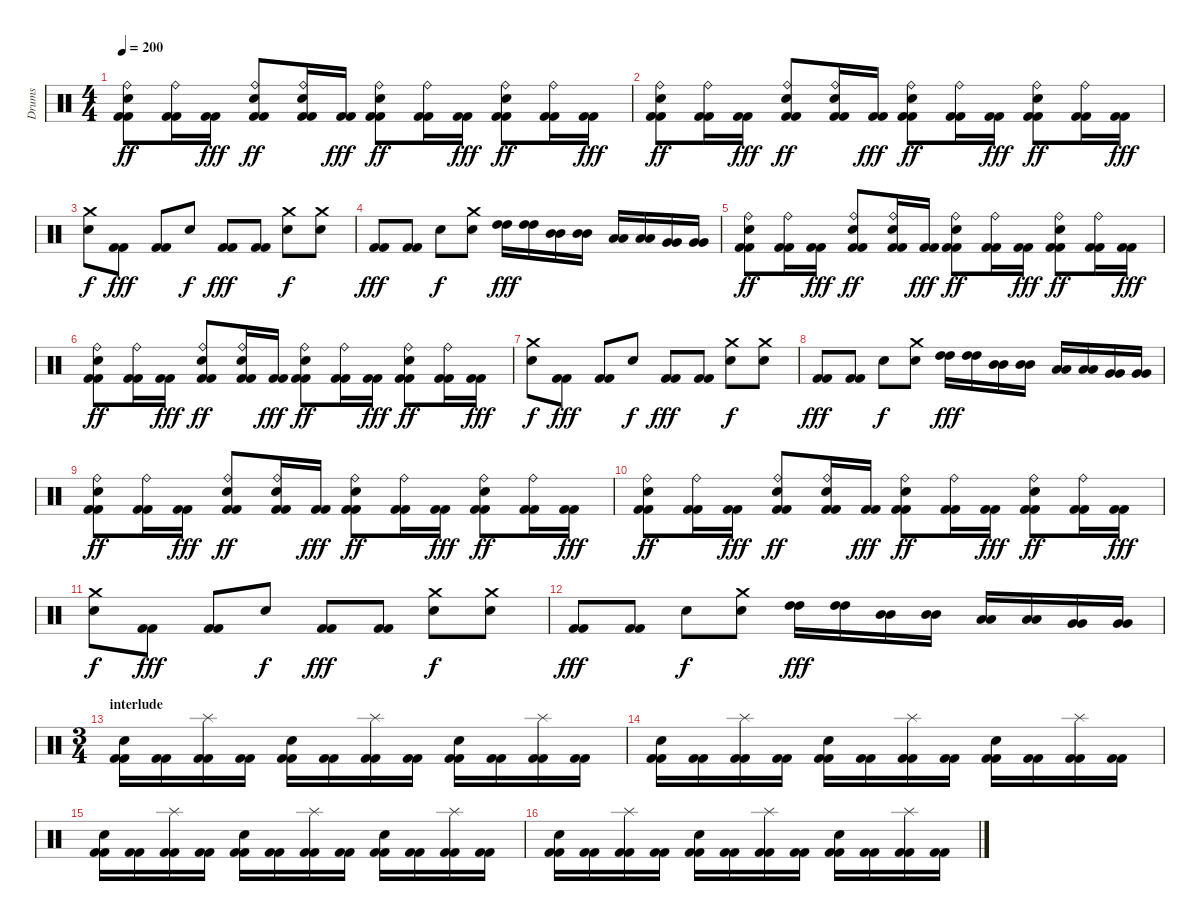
\track ("Drums" "Drums") {instrument percussion}
\staff {score}
\articulation defaults
\ts (4 4)
\tempo 200
\clef neutral
\ks c
("Kick (hit) 2" "Kick (hit) 2" "Ride (bell)" "Electric Snare (hit)").8{dy ff} ("Kick (hit) 2" "Kick (hit) 2" "Ride (bell)").16 ("Kick (hit) 2" "Kick (hit) 2").16{dy fff} ("Kick (hit) 2" "Kick (hit) 2" "Ride (bell)" "Electric Snare (hit)").8{dy ff} ("Kick (hit) 2" "Kick (hit) 2" "Ride (bell)" "Electric Snare (hit)").16 ("Kick (hit) 2" "Kick (hit) 2").16{dy fff} ("Kick (hit) 2" "Kick (hit) 2" "Ride (bell)" "Electric Snare (hit)").8{dy ff} ("Kick (hit) 2" "Kick (hit) 2" "Ride (bell)").16 ("Kick (hit) 2" "Kick (hit) 2").16{dy fff} ("Kick (hit) 2" "Kick (hit) 2" "Ride (bell)" "Electric Snare (hit)").8{dy ff} ("Kick (hit) 2" "Kick (hit) 2" "Ride (bell)").16 ("Kick (hit) 2" "Kick (hit) 2").16{dy fff} |
("Kick (hit) 2" "Kick (hit) 2" "Ride (bell)" "Electric Snare (hit)").8{dy ff} ("Kick (hit) 2" "Kick (hit) 2" "Ride (bell)").16 ("Kick (hit) 2" "Kick (hit) 2").16{dy fff} ("Kick (hit) 2" "Kick (hit) 2" "Ride (bell)" "Electric Snare (hit)").8{dy ff} ("Kick (hit) 2" "Kick (hit) 2" "Ride (bell)" "Electric Snare (hit)").16 ("Kick (hit) 2" "Kick (hit) 2").16{dy fff} ("Kick (hit) 2" "Kick (hit) 2" "Ride (bell)" "Electric Snare (hit)").8{dy ff} ("Kick (hit) 2" "Kick (hit) 2" "Ride (bell)").16 ("Kick (hit) 2" "Kick (hit) 2").16{dy fff} ("Kick (hit) 2" "Kick (hit) 2" "Ride (bell)" "Electric Snare (hit)").8{dy ff} ("Kick (hit) 2" "Kick (hit) 2" "Ride (bell)").16 ("Kick (hit) 2" "Kick (hit) 2").16{dy fff} |
("Crash medium (hit)" "Electric Snare (hit)").8{dy f} ("Kick (hit) 2" "Kick (hit) 2").8{dy fff} ("Kick (hit) 2" "Kick (hit) 2").8 "Electric Snare (hit)".8{dy f} ("Kick (hit) 2" "Kick (hit) 2").8{dy fff} ("Kick (hit) 2" "Kick (hit) 2").8 ("Crash medium (hit)" "Electric Snare (hit)").8{dy f} ("Crash medium (hit)" "Electric Snare (hit)").8 |
("Kick (hit) 2" "Kick (hit) 2").8{dy fff} ("Kick (hit) 2" "Kick (hit) 2").8 "Electric Snare (hit)".8{dy f} ("Crash medium (hit)" "Electric Snare (hit)").8 ("High Tom (hit)" "High Tom (hit)").16{dy fff} ("High Tom (hit)" "High Tom (hit)").16 ("Mid Tom (hit)" "Mid Tom (hit)").16 ("Mid Tom (hit)" "Mid Tom (hit)").16 ("Low Tom (hit)" "Low Tom (hit)").16 ("Low Tom (hit)" "Low Tom (hit)").16 ("Very Low Tom (hit)" "Very Low Tom (hit)").16 ("Very Low Tom (hit)" "Very Low Tom (hit)").16 |
("Kick (hit) 2" "Kick (hit) 2" "Ride (bell)" "Electric Snare (hit)").8{dy ff} ("Kick (hit) 2" "Kick (hit) 2" "Ride (bell)").16 ("Kick (hit) 2" "Kick (hit) 2").16{dy fff} ("Kick (hit) 2" "Kick (hit) 2" "Ride (bell)" "Electric Snare (hit)").8{dy ff} ("Kick (hit) 2" "Kick (hit) 2" "Ride (bell)" "Electric Snare (hit)").16 ("Kick (hit) 2" "Kick (hit) 2").16{dy fff} ("Kick (hit) 2" "Kick (hit) 2" "Ride (bell)" "Electric Snare (hit)").8{dy ff} ("Kick (hit) 2" "Kick (hit) 2" "Ride (bell)").16 ("Kick (hit) 2" "Kick (hit) 2").16{dy fff} ("Kick (hit) 2" "Kick (hit) 2" "Ride (bell)" "Electric Snare (hit)").8{dy ff} ("Kick (hit) 2" "Kick (hit) 2" "Ride (bell)").16 ("Kick (hit) 2" "Kick (hit) 2").16{dy fff} |
("Kick (hit) 2" "Kick (hit) 2" "Ride (bell)" "Electric Snare (hit)").8{dy ff} ("Kick (hit) 2" "Kick (hit) 2" "Ride (bell)").16 ("Kick (hit) 2" "Kick (hit) 2").16{dy fff} ("Kick (hit) 2" "Kick (hit) 2" "Ride (bell)" "Electric Snare (hit)").8{dy ff} ("Kick (hit) 2" "Kick (hit) 2" "Ride (bell)" "Electric Snare (hit)").16 ("Kick (hit) 2" "Kick (hit) 2").16{dy fff} ("Kick (hit) 2" "Kick (hit) 2" "Ride (bell)" "Electric Snare (hit)").8{dy ff} ("Kick (hit) 2" "Kick (hit) 2" "Ride (bell)").16 ("Kick (hit) 2" "Kick (hit) 2").16{dy fff} ("Kick (hit) 2" "Kick (hit) 2" "Ride (bell)" "Electric Snare (hit)").8{dy ff} ("Kick (hit) 2" "Kick (hit) 2" "Ride (bell)").16 ("Kick (hit) 2" "Kick (hit) 2").16{dy fff} |
("Crash medium (hit)" "Electric Snare (hit)").8{dy f} ("Kick (hit) 2" "Kick (hit) 2").8{dy fff} ("Kick (hit) 2" "Kick (hit) 2").8 "Electric Snare (hit)".8{dy f} ("Kick (hit) 2" "Kick (hit) 2").8{dy fff} ("Kick (hit) 2" "Kick (hit) 2").8 ("Crash medium (hit)" "Electric Snare (hit)").8{dy f} ("Crash medium (hit)" "Electric Snare (hit)").8 |
("Kick (hit) 2" "Kick (hit) 2").8{dy fff} ("Kick (hit) 2" "Kick (hit) 2").8 "Electric Snare (hit)".8{dy f} ("Crash medium (hit)" "Electric Snare (hit)").8 ("High Tom (hit)" "High Tom (hit)").16{dy fff} ("High Tom (hit)" "High Tom (hit)").16 ("Mid Tom (hit)" "Mid Tom (hit)").16 ("Mid Tom (hit)" "Mid Tom (hit)").16 ("Low Tom (hit)" "Low Tom (hit)").16 ("Low Tom (hit)" "Low Tom (hit)").16 ("Very Low Tom (hit)" "Very Low Tom (hit)").16 ("Very Low Tom (hit)" "Very Low Tom (hit)").16 |
("Kick (hit) 2" "Kick (hit) 2" "Ride (bell)" "Electric Snare (hit)").8{dy ff} ("Kick (hit) 2" "Kick (hit) 2" "Ride (bell)").16 ("Kick (hit) 2" "Kick (hit) 2").16{dy fff} ("Kick (hit) 2" "Kick (hit) 2" "Ride (bell)" "Electric Snare (hit)").8{dy ff} ("Kick (hit) 2" "Kick (hit) 2" "Ride (bell)" "Electric Snare (hit)").16 ("Kick (hit) 2" "Kick (hit) 2").16{dy fff} ("Kick (hit) 2" "Kick (hit) 2" "Ride (bell)" "Electric Snare (hit)").8{dy ff} ("Kick (hit) 2" "Kick (hit) 2" "Ride (bell)").16 ("Kick (hit) 2" "Kick (hit) 2").16{dy fff} ("Kick (hit) 2" "Kick (hit) 2" "Ride (bell)" "Electric Snare (hit)").8{dy ff} ("Kick (hit) 2" "Kick (hit) 2" "Ride (bell)").16 ("Kick (hit) 2" "Kick (hit) 2").16{dy fff} |
("Kick (hit) 2" "Kick (hit) 2" "Ride (bell)" "Electric Snare (hit)").8{dy ff} ("Kick (hit) 2" "Kick (hit) 2" "Ride (bell)").16 ("Kick (hit) 2" "Kick (hit) 2").16{dy fff} ("Kick (hit) 2" "Kick (hit) 2" "Ride (bell)" "Electric Snare (hit)").8{dy ff} ("Kick (hit) 2" "Kick (hit) 2" "Ride (bell)" "Electric Snare (hit)").16 ("Kick (hit) 2" "Kick (hit) 2").16{dy fff} ("Kick (hit) 2" "Kick (hit) 2" "Ride (bell)" "Electric Snare (hit)").8{dy ff} ("Kick (hit) 2" "Kick (hit) 2" "Ride (bell)").16 ("Kick (hit) 2" "Kick (hit) 2").16{dy fff} ("Kick (hit) 2" "Kick (hit) 2" "Ride (bell)" "Electric Snare (hit)").8{dy ff} ("Kick (hit) 2" "Kick (hit) 2" "Ride (bell)").16 ("Kick (hit) 2" "Kick (hit) 2").16{dy fff} |
("Crash medium (hit)" "Electric Snare (hit)").8{dy f} ("Kick (hit) 2" "Kick (hit) 2").8{dy fff} ("Kick (hit) 2" "Kick (hit) 2").8 "Electric Snare (hit)".8{dy f} ("Kick (hit) 2" "Kick (hit) 2").8{dy fff} ("Kick (hit) 2" "Kick (hit) 2").8 ("Crash medium (hit)" "Electric Snare (hit)").8{dy f} ("Crash medium (hit)" "Electric Snare (hit)").8 |
("Kick (hit) 2" "Kick (hit) 2").8{dy fff} ("Kick (hit) 2" "Kick (hit) 2").8 "Electric Snare (hit)".8{dy f} ("Crash medium (hit)" "Electric Snare (hit)").8 ("High Tom (hit)" "High Tom (hit)").16{dy fff} ("High Tom (hit)" "High Tom (hit)").16 ("Mid Tom (hit)" "Mid Tom (hit)").16 ("Mid Tom (hit)" "Mid Tom (hit)").16 ("Low Tom (hit)" "Low Tom (hit)").16 ("Low Tom (hit)" "Low Tom (hit)").16 ("Very Low Tom (hit)" "Very Low Tom (hit)").16 ("Very Low Tom (hit)" "Very Low Tom (hit)").16 |
\ts (3 4)
\section ("" "interlude")
("Electric Snare (hit)" "Kick (hit) 2" "Kick (hit) 2").16 ("Kick (hit) 2" "Kick (hit) 2").16 ("Splash (hit)" "Kick (hit) 2" "Kick (hit) 2").16 ("Kick (hit) 2" "Kick (hit) 2").16 ("Electric Snare (hit)" "Kick (hit) 2" "Kick (hit) 2").16 ("Kick (hit) 2" "Kick (hit) 2").16 ("Splash (hit)" "Kick (hit) 2" "Kick (hit) 2").16 ("Kick (hit) 2" "Kick (hit) 2").16 ("Electric Snare (hit)" "Kick (hit) 2" "Kick (hit) 2").16 ("Kick (hit) 2" "Kick (hit) 2").16 ("Splash (hit)" "Kick (hit) 2" "Kick (hit) 2").16 ("Kick (hit) 2" "Kick (hit) 2").16 |
("Electric Snare (hit)" "Kick (hit) 2" "Kick (hit) 2").16 ("Kick (hit) 2" "Kick (hit) 2").16 ("Splash (hit)" "Kick (hit) 2" "Kick (hit) 2").16 ("Kick (hit) 2" "Kick (hit) 2").16 ("Electric Snare (hit)" "Kick (hit) 2" "Kick (hit) 2").16 ("Kick (hit) 2" "Kick (hit) 2").16 ("Splash (hit)" "Kick (hit) 2" "Kick (hit) 2").16 ("Kick (hit) 2" "Kick (hit) 2").16 ("Electric Snare (hit)" "Kick (hit) 2" "Kick (hit) 2").16 ("Kick (hit) 2" "Kick (hit) 2").16 ("Splash (hit)" "Kick (hit) 2" "Kick (hit) 2").16 ("Kick (hit) 2" "Kick (hit) 2").16 |
("Electric Snare (hit)" "Kick (hit) 2" "Kick (hit) 2").16 ("Kick (hit) 2" "Kick (hit) 2").16 ("Splash (hit)" "Kick (hit) 2" "Kick (hit) 2").16 ("Kick (hit) 2" "Kick (hit) 2").16 ("Electric Snare (hit)" "Kick (hit) 2" "Kick (hit) 2").16 ("Kick (hit) 2" "Kick (hit) 2").16 ("Splash (hit)" "Kick (hit) 2" "Kick (hit) 2").16 ("Kick (hit) 2" "Kick (hit) 2").16 ("Electric Snare (hit)" "Kick (hit) 2" "Kick (hit) 2").16 ("Kick (hit) 2" "Kick (hit) 2").16 ("Splash (hit)" "Kick (hit) 2" "Kick (hit) 2").16 ("Kick (hit) 2" "Kick (hit) 2").16 |
("Electric Snare (hit)" "Kick (hit) 2" "Kick (hit) 2").16 ("Kick (hit) 2" "Kick (hit) 2").16 ("Splash (hit)" "Kick (hit) 2" "Kick (hit) 2").16 ("Kick (hit) 2" "Kick (hit) 2").16 ("Electric Snare (hit)" "Kick (hit) 2" "Kick (hit) 2").16 ("Kick (hit) 2" "Kick (hit) 2").16 ("Splash (hit)" "Kick (hit) 2" "Kick (hit) 2").16 ("Kick (hit) 2" "Kick (hit) 2").16 ("Electric Snare (hit)" "Kick (hit) 2" "Kick (hit) 2").16 ("Kick (hit) 2" "Kick (hit) 2").16 ("Splash (hit)" "Kick (hit) 2" "Kick (hit) 2").16 ("Kick (hit) 2" "Kick (hit) 2").16
